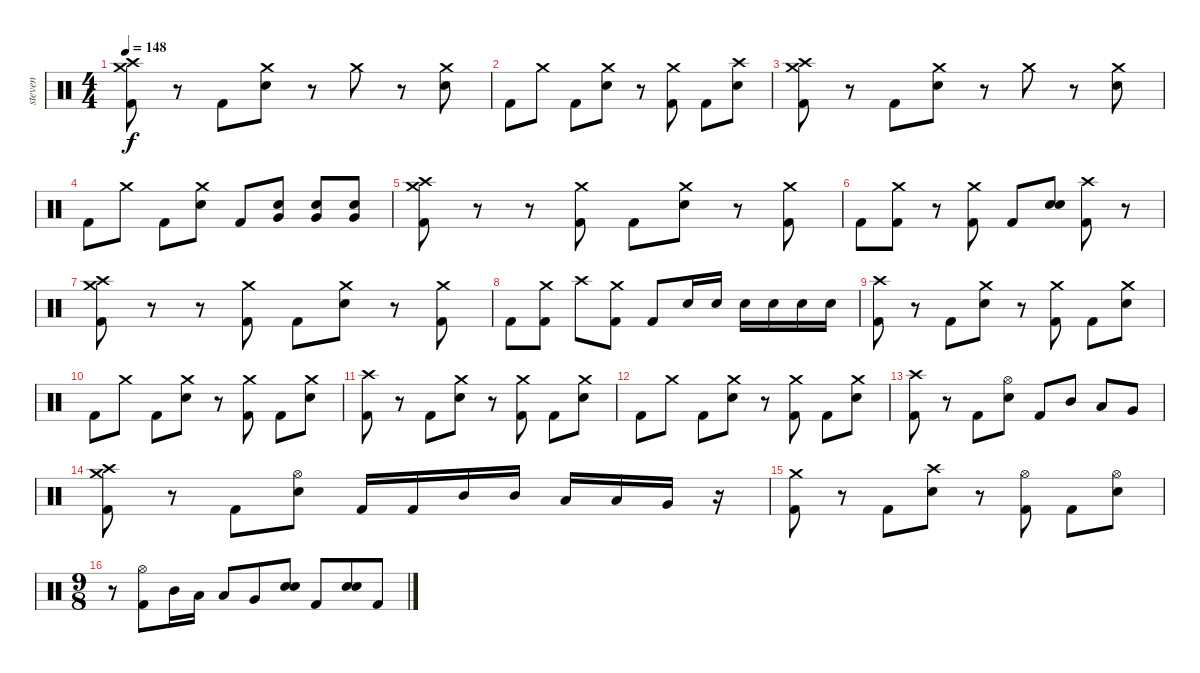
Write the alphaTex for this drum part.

\track ("steven" "steven") {instrument percussion}
\staff {score}
\articulation defaults
\ts (4 4)
\tempo 148
\clef neutral
\ks c
("Crash medium (hit)" "Crash high (hit)" "Kick (hit) 2").8{dy f} r.8 "Kick (hit) 2".8 ("Crash medium (hit)" "Electric Snare (hit)").8 r.8 "Crash medium (hit)".8 r.8 ("Crash medium (hit)" "Electric Snare (hit)").8 |
"Kick (hit) 2".8 "Crash medium (hit)".8 "Kick (hit) 2".8 ("Crash medium (hit)" "Electric Snare (hit)").8 r.8 ("Crash medium (hit)" "Kick (hit) 2").8 "Kick (hit) 2".8 ("Crash high (hit)" "Electric Snare (hit)").8 |
("Crash medium (hit)" "Crash high (hit)" "Kick (hit) 2").8 r.8 "Kick (hit) 2".8 ("Crash medium (hit)" "Electric Snare (hit)").8 r.8 "Crash medium (hit)".8 r.8 ("Crash medium (hit)" "Electric Snare (hit)").8 |
"Kick (hit) 2".8 "Crash medium (hit)".8 "Kick (hit) 2".8 ("Crash medium (hit)" "Electric Snare (hit)").8 "Kick (hit) 2".8 ("Very Low Tom (hit)" "Electric Snare (hit)").8 ("Very Low Tom (hit)" "Electric Snare (hit)").8 ("Very Low Tom (hit)" "Electric Snare (hit)").8 |
("Crash medium (hit)" "Crash high (hit)" "Kick (hit) 2").8 r.8 r.8 ("Crash medium (hit)" "Kick (hit) 2").8 "Kick (hit) 2".8 ("Crash medium (hit)" "Electric Snare (hit)").8 r.8 ("Crash medium (hit)" "Kick (hit) 2").8 |
"Kick (hit) 2".8 ("Crash medium (hit)" "Kick (hit) 2").8 r.8 ("Crash medium (hit)" "Kick (hit) 2").8 "Kick (hit) 2".8 ("Electric Snare (hit)" "Electric Snare (hit)").8 ("Crash high (hit)" "Kick (hit) 2").8 r.8 |
("Crash medium (hit)" "Crash high (hit)" "Kick (hit) 2").8 r.8 r.8 ("Crash medium (hit)" "Kick (hit) 2").8 "Kick (hit) 2".8 ("Crash medium (hit)" "Electric Snare (hit)").8 r.8 ("Crash medium (hit)" "Kick (hit) 2").8 |
"Kick (hit) 2".8 ("Crash medium (hit)" "Kick (hit) 2").8 "Crash high (hit)".8 ("Crash medium (hit)" "Kick (hit) 2").8 "Kick (hit) 2".8 "Electric Snare (hit)".16 "Electric Snare (hit)".16 "Electric Snare (hit)".16 "Electric Snare (hit)".16 "Electric Snare (hit)".16 "Electric Snare (hit)".16 |
("Crash high (hit)" "Kick (hit) 2").8 r.8 "Kick (hit) 2".8 ("Crash medium (hit)" "Electric Snare (hit)").8 r.8 ("Crash medium (hit)" "Kick (hit) 2").8 "Kick (hit) 2".8 ("Crash medium (hit)" "Electric Snare (hit)").8 |
"Kick (hit) 2".8 "Crash medium (hit)".8 "Kick (hit) 2".8 ("Crash medium (hit)" "Electric Snare (hit)").8 r.8 ("Crash medium (hit)" "Kick (hit) 2").8 "Kick (hit) 2".8 ("Crash medium (hit)" "Electric Snare (hit)").8 |
("Crash high (hit)" "Kick (hit) 2").8 r.8 "Kick (hit) 2".8 ("Crash medium (hit)" "Electric Snare (hit)").8 r.8 ("Crash medium (hit)" "Kick (hit) 2").8 "Kick (hit) 2".8 ("Crash medium (hit)" "Electric Snare (hit)").8 |
"Kick (hit) 2".8 "Crash medium (hit)".8 "Kick (hit) 2".8 ("Crash medium (hit)" "Electric Snare (hit)").8 r.8 ("Crash medium (hit)" "Kick (hit) 2").8 "Kick (hit) 2".8 ("Crash medium (hit)" "Electric Snare (hit)").8 |
("Crash high (hit)" "Kick (hit) 2").8 r.8 "Kick (hit) 2".8 ("Hi-Hat (open)" "Electric Snare (hit)").8 "Kick (hit) 2".8 "Mid Tom (hit)".8 "Low Tom (hit)".8 "Very Low Tom (hit)".8 |
("Crash medium (hit)" "Crash high (hit)" "Kick (hit) 2").8 r.8 "Kick (hit) 2".8 ("Hi-Hat (open)" "Electric Snare (hit)").8 "Kick (hit) 2".16 "Kick (hit) 2".16 "Mid Tom (hit)".16 "Mid Tom (hit)".16 "Low Tom (hit)".16 "Low Tom (hit)".16 "Very Low Tom (hit)".16 r.16 |
("Crash medium (hit)" "Kick (hit) 2").8 r.8 "Kick (hit) 2".8 ("Crash high (hit)" "Electric Snare (hit)").8 r.8 ("Hi-Hat (open)" "Kick (hit) 2").8 "Kick (hit) 2".8 ("Hi-Hat (open)" "Electric Snare (hit)").8 |
\ts (9 8)
r.8 ("Hi-Hat (open)" "Kick (hit) 2").8 "Mid Tom (hit)".16 "Low Tom (hit)".16 "Low Tom (hit)".8 "Very Low Tom (hit)".8 ("Electric Snare (hit)" "Electric Snare (hit)").8 "Kick (hit) 2".8 ("Electric Snare (hit)" "Electric Snare (hit)").8 "Kick (hit) 2".8
